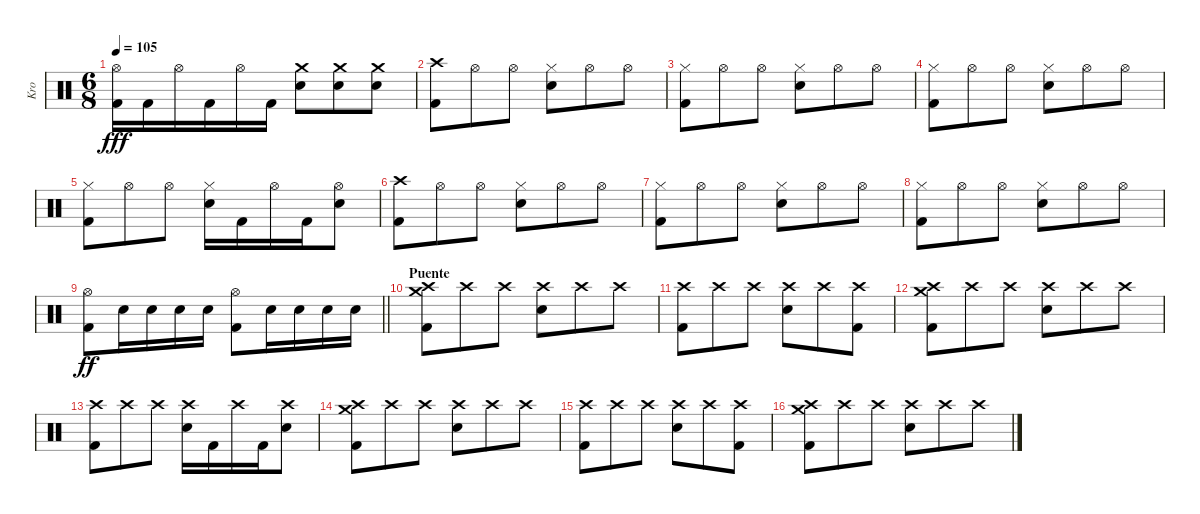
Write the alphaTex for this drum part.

\track ("Kro" "Kro") {instrument percussion}
\staff {score}
\articulation defaults
\ts (6 8)
\tempo 105
\clef neutral
\ks c
("Hi-Hat (open)" "Kick (hit) 2").16{dy fff} "Kick (hit) 2".16 "Hi-Hat (open)".16 "Kick (hit) 2".16 "Hi-Hat (open)".16 "Kick (hit) 2".16 ("Crash medium (hit)" "Electric Snare (hit)").8 ("Crash medium (hit)" "Electric Snare (hit)").8 ("Crash medium (hit)" "Electric Snare (hit)").8 |
("Crash high (hit)" "Kick (hit) 2").8 "Hi-Hat (open)".8 "Hi-Hat (open)".8 ("Hi-Hat (closed)" "Electric Snare (hit)").8 "Hi-Hat (open)".8 "Hi-Hat (open)".8 |
("Hi-Hat (closed)" "Kick (hit) 2").8 "Hi-Hat (open)".8 "Hi-Hat (open)".8 ("Hi-Hat (closed)" "Electric Snare (hit)").8 "Hi-Hat (open)".8 "Hi-Hat (open)".8 |
("Hi-Hat (closed)" "Kick (hit) 2").8 "Hi-Hat (open)".8 "Hi-Hat (open)".8 ("Hi-Hat (closed)" "Electric Snare (hit)").8 "Hi-Hat (open)".8 "Hi-Hat (open)".8 |
("Hi-Hat (closed)" "Kick (hit) 2").8 "Hi-Hat (open)".8 "Hi-Hat (open)".8 ("Hi-Hat (closed)" "Electric Snare (hit)").16 "Kick (hit) 2".16 "Hi-Hat (open)".16 "Kick (hit) 2".16 ("Hi-Hat (open)" "Electric Snare (hit)").8 |
("Crash high (hit)" "Kick (hit) 2").8 "Hi-Hat (open)".8 "Hi-Hat (open)".8 ("Hi-Hat (closed)" "Electric Snare (hit)").8 "Hi-Hat (open)".8 "Hi-Hat (open)".8 |
("Hi-Hat (closed)" "Kick (hit) 2").8 "Hi-Hat (open)".8 "Hi-Hat (open)".8 ("Hi-Hat (closed)" "Electric Snare (hit)").8 "Hi-Hat (open)".8 "Hi-Hat (open)".8 |
("Hi-Hat (closed)" "Kick (hit) 2").8 "Hi-Hat (open)".8 "Hi-Hat (open)".8 ("Hi-Hat (closed)" "Electric Snare (hit)").8 "Hi-Hat (open)".8 "Hi-Hat (open)".8 |
\barLineRight lightlight
("Hi-Hat (open)" "Kick (hit) 2").8{dy ff} "Electric Snare (hit)".16 "Electric Snare (hit)".16 "Electric Snare (hit)".16 "Electric Snare (hit)".16 ("Hi-Hat (open)" "Kick (hit) 2").8 "Electric Snare (hit)".16 "Electric Snare (hit)".16 "Electric Snare (hit)".16 "Electric Snare (hit)".16 |
\section ("" "Puente")
("Crash medium (hit)" "Crash high (hit)" "Kick (hit) 2").8 "Crash high (hit)".8 "Crash high (hit)".8 ("Crash high (hit)" "Electric Snare (hit)").8 "Crash high (hit)".8 "Crash high (hit)".8 |
("Crash high (hit)" "Kick (hit) 2").8 "Crash high (hit)".8 "Crash high (hit)".8 ("Crash high (hit)" "Electric Snare (hit)").8 "Crash high (hit)".8 ("Crash high (hit)" "Kick (hit) 2").8 |
("Crash medium (hit)" "Crash high (hit)" "Kick (hit) 2").8 "Crash high (hit)".8 "Crash high (hit)".8 ("Crash high (hit)" "Electric Snare (hit)").8 "Crash high (hit)".8 "Crash high (hit)".8 |
("Crash high (hit)" "Kick (hit) 2").8 "Crash high (hit)".8 "Crash high (hit)".8 ("Crash high (hit)" "Electric Snare (hit)").16 "Kick (hit) 2".16 "Crash high (hit)".16 "Kick (hit) 2".16 ("Crash high (hit)" "Electric Snare (hit)").8 |
("Crash medium (hit)" "Crash high (hit)" "Kick (hit) 2").8 "Crash high (hit)".8 "Crash high (hit)".8 ("Crash high (hit)" "Electric Snare (hit)").8 "Crash high (hit)".8 "Crash high (hit)".8 |
("Crash high (hit)" "Kick (hit) 2").8 "Crash high (hit)".8 "Crash high (hit)".8 ("Crash high (hit)" "Electric Snare (hit)").8 "Crash high (hit)".8 ("Crash high (hit)" "Kick (hit) 2").8 |
("Crash medium (hit)" "Crash high (hit)" "Kick (hit) 2").8 "Crash high (hit)".8 "Crash high (hit)".8 ("Crash high (hit)" "Electric Snare (hit)").8 "Crash high (hit)".8 "Crash high (hit)".8
